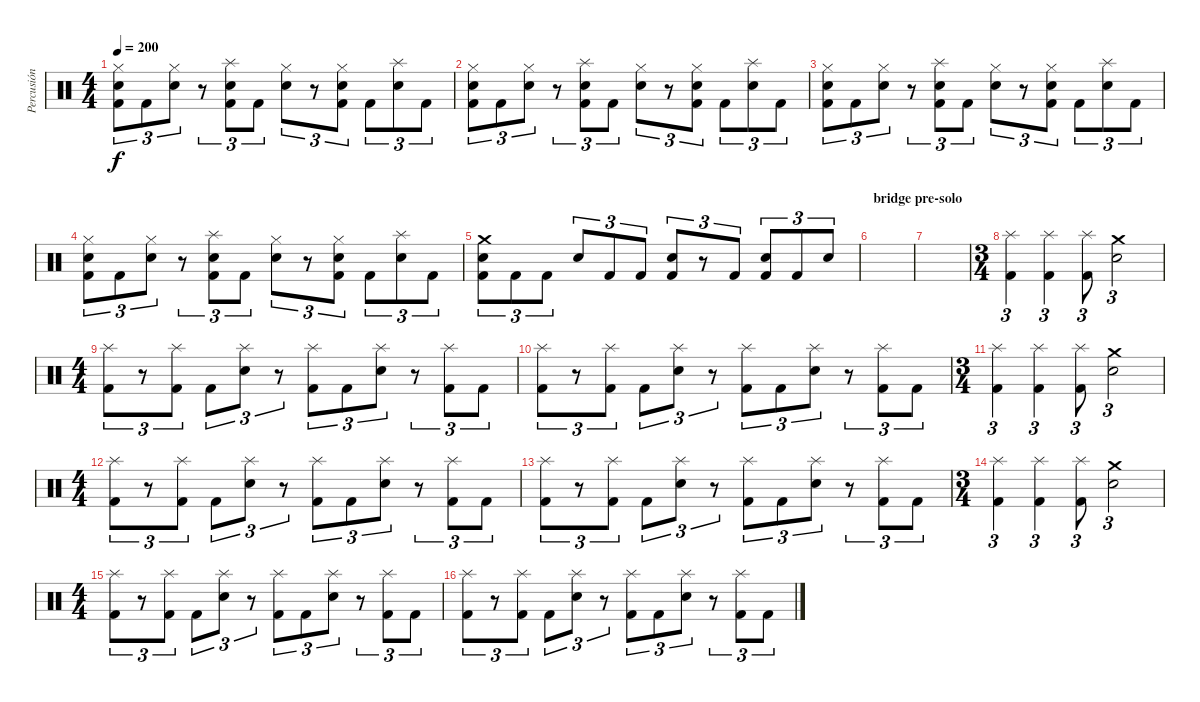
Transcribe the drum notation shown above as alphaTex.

\track ("Percusión" "Percusión") {instrument percussion}
\staff {score}
\articulation defaults
\ts (4 4)
\tempo 200
\clef neutral
\ks c
("Hi-Hat (closed)" "Snare (hit) 2" "Kick (hit) 2").8{tu (3 2) dy f} "Kick (hit) 2".8{tu (3 2)} ("Hi-Hat (closed)" "Snare (hit) 2").8{tu (3 2)} r.8{tu (3 2)} ("Splash (hit)" "Snare (hit) 2" "Kick (hit) 2").8{tu (3 2)} "Kick (hit) 2".8{tu (3 2)} ("Hi-Hat (closed)" "Snare (hit) 2").8{tu (3 2)} r.8{tu (3 2)} ("Hi-Hat (closed)" "Snare (hit) 2" "Kick (hit) 2").8{tu (3 2)} "Kick (hit) 2".8{tu (3 2)} ("Splash (hit)" "Snare (hit) 2").8{tu (3 2)} "Kick (hit) 2".8{tu (3 2)} |
("Hi-Hat (closed)" "Snare (hit) 2" "Kick (hit) 2").8{tu (3 2)} "Kick (hit) 2".8{tu (3 2)} ("Hi-Hat (closed)" "Snare (hit) 2").8{tu (3 2)} r.8{tu (3 2)} ("Splash (hit)" "Snare (hit) 2" "Kick (hit) 2").8{tu (3 2)} "Kick (hit) 2".8{tu (3 2)} ("Hi-Hat (closed)" "Snare (hit) 2").8{tu (3 2)} r.8{tu (3 2)} ("Hi-Hat (closed)" "Snare (hit) 2" "Kick (hit) 2").8{tu (3 2)} "Kick (hit) 2".8{tu (3 2)} ("Splash (hit)" "Snare (hit) 2").8{tu (3 2)} "Kick (hit) 2".8{tu (3 2)} |
("Hi-Hat (closed)" "Snare (hit) 2" "Kick (hit) 2").8{tu (3 2)} "Kick (hit) 2".8{tu (3 2)} ("Hi-Hat (closed)" "Snare (hit) 2").8{tu (3 2)} r.8{tu (3 2)} ("Splash (hit)" "Snare (hit) 2" "Kick (hit) 2").8{tu (3 2)} "Kick (hit) 2".8{tu (3 2)} ("Hi-Hat (closed)" "Snare (hit) 2").8{tu (3 2)} r.8{tu (3 2)} ("Hi-Hat (closed)" "Snare (hit) 2" "Kick (hit) 2").8{tu (3 2)} "Kick (hit) 2".8{tu (3 2)} ("Splash (hit)" "Snare (hit) 2").8{tu (3 2)} "Kick (hit) 2".8{tu (3 2)} |
("Hi-Hat (closed)" "Snare (hit) 2" "Kick (hit) 2").8{tu (3 2)} "Kick (hit) 2".8{tu (3 2)} ("Hi-Hat (closed)" "Snare (hit) 2").8{tu (3 2)} r.8{tu (3 2)} ("Splash (hit)" "Snare (hit) 2" "Kick (hit) 2").8{tu (3 2)} "Kick (hit) 2".8{tu (3 2)} ("Hi-Hat (closed)" "Snare (hit) 2").8{tu (3 2)} r.8{tu (3 2)} ("Hi-Hat (closed)" "Snare (hit) 2" "Kick (hit) 2").8{tu (3 2)} "Kick (hit) 2".8{tu (3 2)} ("Splash (hit)" "Snare (hit) 2").8{tu (3 2)} "Kick (hit) 2".8{tu (3 2)} |
("Crash medium (hit)" "Snare (hit) 2" "Kick (hit) 2").8{tu (3 2)} "Kick (hit) 2".8{tu (3 2)} "Kick (hit) 2".8{tu (3 2)} "Snare (hit) 2".8{tu (3 2)} "Kick (hit) 2".8{tu (3 2)} "Kick (hit) 2".8{tu (3 2)} ("Snare (hit) 2" "Kick (hit) 2").8{tu (3 2)} r.8{tu (3 2)} "Kick (hit) 2".8{tu (3 2)} ("Snare (hit) 2" "Kick (hit) 2").8{tu (3 2)} "Kick (hit) 2".8{tu (3 2)} "Snare (hit) 2".8{tu (3 2)} |
\section ("" "bridge pre-solo")
|
|
\ts (3 4)
("Splash (hit)" "Kick (hit) 2").4{tu (3 2)} ("Splash (hit)" "Kick (hit) 2").4{tu (3 2)} ("Splash (hit)" "Kick (hit) 2").8{tu (3 2)} ("Crash medium (hit)" "Snare (hit) 2").2{tu (3 2)} |
\ts (4 4)
("Splash (hit)" "Kick (hit) 2").8{tu (3 2)} r.8{tu (3 2)} ("Splash (hit)" "Kick (hit) 2").8{tu (3 2)} "Kick (hit) 2".8{tu (3 2)} ("Splash (hit)" "Snare (hit) 2").8{tu (3 2)} r.8{tu (3 2)} ("Splash (hit)" "Kick (hit) 2").8{tu (3 2)} "Kick (hit) 2".8{tu (3 2)} ("Splash (hit)" "Snare (hit) 2").8{tu (3 2)} r.8{tu (3 2)} ("Splash (hit)" "Kick (hit) 2").8{tu (3 2)} "Kick (hit) 2".8{tu (3 2)} |
("Splash (hit)" "Kick (hit) 2").8{tu (3 2)} r.8{tu (3 2)} ("Splash (hit)" "Kick (hit) 2").8{tu (3 2)} "Kick (hit) 2".8{tu (3 2)} ("Splash (hit)" "Snare (hit) 2").8{tu (3 2)} r.8{tu (3 2)} ("Splash (hit)" "Kick (hit) 2").8{tu (3 2)} "Kick (hit) 2".8{tu (3 2)} ("Splash (hit)" "Snare (hit) 2").8{tu (3 2)} r.8{tu (3 2)} ("Splash (hit)" "Kick (hit) 2").8{tu (3 2)} "Kick (hit) 2".8{tu (3 2)} |
\ts (3 4)
("Splash (hit)" "Kick (hit) 2").4{tu (3 2)} ("Splash (hit)" "Kick (hit) 2").4{tu (3 2)} ("Splash (hit)" "Kick (hit) 2").8{tu (3 2)} ("Crash medium (hit)" "Snare (hit) 2").2{tu (3 2)} |
\ts (4 4)
("Splash (hit)" "Kick (hit) 2").8{tu (3 2)} r.8{tu (3 2)} ("Splash (hit)" "Kick (hit) 2").8{tu (3 2)} "Kick (hit) 2".8{tu (3 2)} ("Splash (hit)" "Snare (hit) 2").8{tu (3 2)} r.8{tu (3 2)} ("Splash (hit)" "Kick (hit) 2").8{tu (3 2)} "Kick (hit) 2".8{tu (3 2)} ("Splash (hit)" "Snare (hit) 2").8{tu (3 2)} r.8{tu (3 2)} ("Splash (hit)" "Kick (hit) 2").8{tu (3 2)} "Kick (hit) 2".8{tu (3 2)} |
("Splash (hit)" "Kick (hit) 2").8{tu (3 2)} r.8{tu (3 2)} ("Splash (hit)" "Kick (hit) 2").8{tu (3 2)} "Kick (hit) 2".8{tu (3 2)} ("Splash (hit)" "Snare (hit) 2").8{tu (3 2)} r.8{tu (3 2)} ("Splash (hit)" "Kick (hit) 2").8{tu (3 2)} "Kick (hit) 2".8{tu (3 2)} ("Splash (hit)" "Snare (hit) 2").8{tu (3 2)} r.8{tu (3 2)} ("Splash (hit)" "Kick (hit) 2").8{tu (3 2)} "Kick (hit) 2".8{tu (3 2)} |
\ts (3 4)
("Splash (hit)" "Kick (hit) 2").4{tu (3 2)} ("Splash (hit)" "Kick (hit) 2").4{tu (3 2)} ("Splash (hit)" "Kick (hit) 2").8{tu (3 2)} ("Crash medium (hit)" "Snare (hit) 2").2{tu (3 2)} |
\ts (4 4)
("Splash (hit)" "Kick (hit) 2").8{tu (3 2)} r.8{tu (3 2)} ("Splash (hit)" "Kick (hit) 2").8{tu (3 2)} "Kick (hit) 2".8{tu (3 2)} ("Splash (hit)" "Snare (hit) 2").8{tu (3 2)} r.8{tu (3 2)} ("Splash (hit)" "Kick (hit) 2").8{tu (3 2)} "Kick (hit) 2".8{tu (3 2)} ("Splash (hit)" "Snare (hit) 2").8{tu (3 2)} r.8{tu (3 2)} ("Splash (hit)" "Kick (hit) 2").8{tu (3 2)} "Kick (hit) 2".8{tu (3 2)} |
("Splash (hit)" "Kick (hit) 2").8{tu (3 2)} r.8{tu (3 2)} ("Splash (hit)" "Kick (hit) 2").8{tu (3 2)} "Kick (hit) 2".8{tu (3 2)} ("Splash (hit)" "Snare (hit) 2").8{tu (3 2)} r.8{tu (3 2)} ("Splash (hit)" "Kick (hit) 2").8{tu (3 2)} "Kick (hit) 2".8{tu (3 2)} ("Splash (hit)" "Snare (hit) 2").8{tu (3 2)} r.8{tu (3 2)} ("Splash (hit)" "Kick (hit) 2").8{tu (3 2)} "Kick (hit) 2".8{tu (3 2)}
